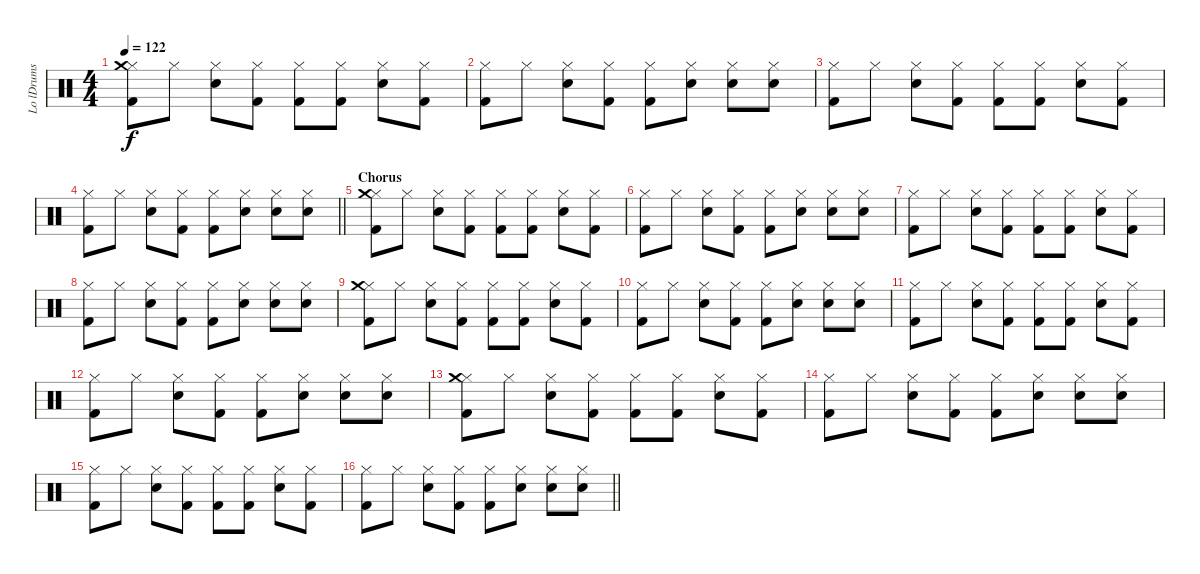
\track ("Lo lDrums" "Lo lDrums") {instrument percussion}
\staff {score}
\articulation defaults
\ts (4 4)
\tempo 122
\clef neutral
\ks c
("Hi-Hat (closed)" "Crash medium (hit)" "Kick (hit) 2").8{dy f} "Hi-Hat (closed)".8 ("Hi-Hat (closed)" "Snare (hit) 2").8 ("Hi-Hat (closed)" "Kick (hit) 2").8 ("Hi-Hat (closed)" "Kick (hit) 2").8 ("Hi-Hat (closed)" "Kick (hit) 2").8 ("Hi-Hat (closed)" "Snare (hit) 2").8 ("Hi-Hat (closed)" "Kick (hit) 2").8 |
("Kick (hit) 2" "Hi-Hat (closed)").8 "Hi-Hat (closed)".8 ("Snare (hit) 2" "Hi-Hat (closed)").8 ("Kick (hit) 2" "Hi-Hat (closed)").8 ("Kick (hit) 2" "Hi-Hat (closed)").8 ("Snare (hit) 2" "Hi-Hat (closed)").8 ("Snare (hit) 2" "Hi-Hat (closed)").8 ("Snare (hit) 2" "Hi-Hat (closed)").8 |
("Kick (hit) 2" "Hi-Hat (closed)").8 "Hi-Hat (closed)".8 ("Hi-Hat (closed)" "Snare (hit) 2").8 ("Hi-Hat (closed)" "Kick (hit) 2").8 ("Hi-Hat (closed)" "Kick (hit) 2").8 ("Hi-Hat (closed)" "Kick (hit) 2").8 ("Hi-Hat (closed)" "Snare (hit) 2").8 ("Hi-Hat (closed)" "Kick (hit) 2").8 |
\barLineRight lightlight
("Kick (hit) 2" "Hi-Hat (closed)").8 "Hi-Hat (closed)".8 ("Snare (hit) 2" "Hi-Hat (closed)").8 ("Kick (hit) 2" "Hi-Hat (closed)").8 ("Kick (hit) 2" "Hi-Hat (closed)").8 ("Snare (hit) 2" "Hi-Hat (closed)").8 ("Snare (hit) 2" "Hi-Hat (closed)").8 ("Snare (hit) 2" "Hi-Hat (closed)").8 |
\section ("" "Chorus")
("Hi-Hat (closed)" "Crash medium (hit)" "Kick (hit) 2").8 "Hi-Hat (closed)".8 ("Hi-Hat (closed)" "Snare (hit) 2").8 ("Hi-Hat (closed)" "Kick (hit) 2").8 ("Hi-Hat (closed)" "Kick (hit) 2").8 ("Hi-Hat (closed)" "Kick (hit) 2").8 ("Hi-Hat (closed)" "Snare (hit) 2").8 ("Hi-Hat (closed)" "Kick (hit) 2").8 |
("Kick (hit) 2" "Hi-Hat (closed)").8 "Hi-Hat (closed)".8 ("Snare (hit) 2" "Hi-Hat (closed)").8 ("Kick (hit) 2" "Hi-Hat (closed)").8 ("Kick (hit) 2" "Hi-Hat (closed)").8 ("Snare (hit) 2" "Hi-Hat (closed)").8 ("Snare (hit) 2" "Hi-Hat (closed)").8 ("Snare (hit) 2" "Hi-Hat (closed)").8 |
("Kick (hit) 2" "Hi-Hat (closed)").8 "Hi-Hat (closed)".8 ("Hi-Hat (closed)" "Snare (hit) 2").8 ("Hi-Hat (closed)" "Kick (hit) 2").8 ("Hi-Hat (closed)" "Kick (hit) 2").8 ("Hi-Hat (closed)" "Kick (hit) 2").8 ("Hi-Hat (closed)" "Snare (hit) 2").8 ("Hi-Hat (closed)" "Kick (hit) 2").8 |
("Kick (hit) 2" "Hi-Hat (closed)").8 "Hi-Hat (closed)".8 ("Snare (hit) 2" "Hi-Hat (closed)").8 ("Kick (hit) 2" "Hi-Hat (closed)").8 ("Kick (hit) 2" "Hi-Hat (closed)").8 ("Snare (hit) 2" "Hi-Hat (closed)").8 ("Snare (hit) 2" "Hi-Hat (closed)").8 ("Snare (hit) 2" "Hi-Hat (closed)").8 |
("Hi-Hat (closed)" "Crash medium (hit)" "Kick (hit) 2").8 "Hi-Hat (closed)".8 ("Hi-Hat (closed)" "Snare (hit) 2").8 ("Hi-Hat (closed)" "Kick (hit) 2").8 ("Hi-Hat (closed)" "Kick (hit) 2").8 ("Hi-Hat (closed)" "Kick (hit) 2").8 ("Hi-Hat (closed)" "Snare (hit) 2").8 ("Hi-Hat (closed)" "Kick (hit) 2").8 |
("Kick (hit) 2" "Hi-Hat (closed)").8 "Hi-Hat (closed)".8 ("Snare (hit) 2" "Hi-Hat (closed)").8 ("Kick (hit) 2" "Hi-Hat (closed)").8 ("Kick (hit) 2" "Hi-Hat (closed)").8 ("Snare (hit) 2" "Hi-Hat (closed)").8 ("Snare (hit) 2" "Hi-Hat (closed)").8 ("Snare (hit) 2" "Hi-Hat (closed)").8 |
("Kick (hit) 2" "Hi-Hat (closed)").8 "Hi-Hat (closed)".8 ("Hi-Hat (closed)" "Snare (hit) 2").8 ("Hi-Hat (closed)" "Kick (hit) 2").8 ("Hi-Hat (closed)" "Kick (hit) 2").8 ("Hi-Hat (closed)" "Kick (hit) 2").8 ("Hi-Hat (closed)" "Snare (hit) 2").8 ("Hi-Hat (closed)" "Kick (hit) 2").8 |
("Kick (hit) 2" "Hi-Hat (closed)").8 "Hi-Hat (closed)".8 ("Snare (hit) 2" "Hi-Hat (closed)").8 ("Kick (hit) 2" "Hi-Hat (closed)").8 ("Kick (hit) 2" "Hi-Hat (closed)").8 ("Snare (hit) 2" "Hi-Hat (closed)").8 ("Snare (hit) 2" "Hi-Hat (closed)").8 ("Snare (hit) 2" "Hi-Hat (closed)").8 |
("Hi-Hat (closed)" "Crash medium (hit)" "Kick (hit) 2").8 "Hi-Hat (closed)".8 ("Hi-Hat (closed)" "Snare (hit) 2").8 ("Hi-Hat (closed)" "Kick (hit) 2").8 ("Hi-Hat (closed)" "Kick (hit) 2").8 ("Hi-Hat (closed)" "Kick (hit) 2").8 ("Hi-Hat (closed)" "Snare (hit) 2").8 ("Hi-Hat (closed)" "Kick (hit) 2").8 |
("Kick (hit) 2" "Hi-Hat (closed)").8 "Hi-Hat (closed)".8 ("Snare (hit) 2" "Hi-Hat (closed)").8 ("Kick (hit) 2" "Hi-Hat (closed)").8 ("Kick (hit) 2" "Hi-Hat (closed)").8 ("Snare (hit) 2" "Hi-Hat (closed)").8 ("Snare (hit) 2" "Hi-Hat (closed)").8 ("Snare (hit) 2" "Hi-Hat (closed)").8 |
("Kick (hit) 2" "Hi-Hat (closed)").8 "Hi-Hat (closed)".8 ("Hi-Hat (closed)" "Snare (hit) 2").8 ("Hi-Hat (closed)" "Kick (hit) 2").8 ("Hi-Hat (closed)" "Kick (hit) 2").8 ("Hi-Hat (closed)" "Kick (hit) 2").8 ("Hi-Hat (closed)" "Snare (hit) 2").8 ("Hi-Hat (closed)" "Kick (hit) 2").8 |
\barLineRight lightlight
("Kick (hit) 2" "Hi-Hat (closed)").8 "Hi-Hat (closed)".8 ("Snare (hit) 2" "Hi-Hat (closed)").8 ("Kick (hit) 2" "Hi-Hat (closed)").8 ("Kick (hit) 2" "Hi-Hat (closed)").8 ("Snare (hit) 2" "Hi-Hat (closed)").8 ("Snare (hit) 2" "Hi-Hat (closed)").8 ("Snare (hit) 2" "Hi-Hat (closed)").8
